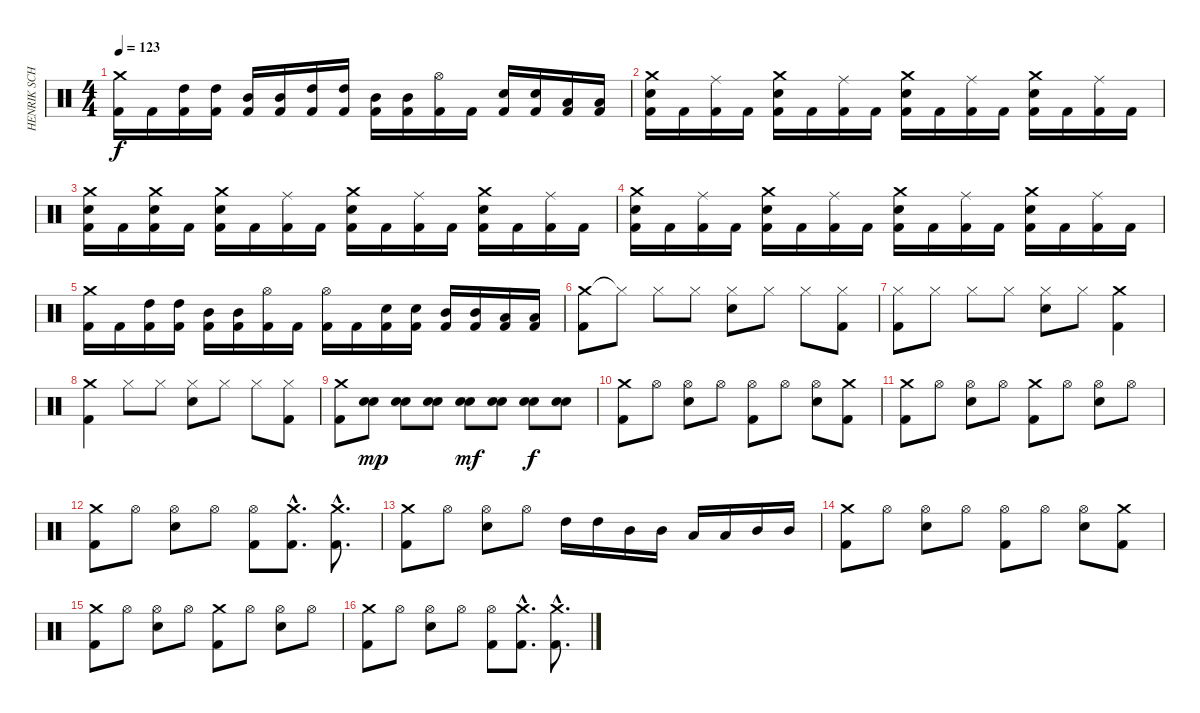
\track ("HENRIK SCHÖNSTÖM " "HENRIK SCH") {instrument percussion}
\staff {score}
\articulation defaults
\ts (4 4)
\tempo 123
\clef neutral
\ks c
("Crash medium (hit)" "Kick (hit) 2").16{dy f} "Kick (hit) 2".16 ("High Tom (hit)" "Kick (hit) 2").16 ("High Tom (hit)" "Kick (hit) 2").16 ("Mid Tom (hit)" "Kick (hit) 2").16 ("Mid Tom (hit)" "Kick (hit) 2").16 ("High Tom (hit)" "Kick (hit) 2").16 ("High Tom (hit)" "Kick (hit) 2").16 ("Mid Tom (hit)" "Kick (hit) 2").16 ("Mid Tom (hit)" "Kick (hit) 2").16 ("Hi-Hat (open)" "Kick (hit) 2").16 "Kick (hit) 2".16 ("Snare (hit) 2" "Kick (hit) 2").16 ("Snare (hit) 2" "Kick (hit) 2").16 ("Low Tom (hit)" "Kick (hit) 2").16 ("Low Tom (hit)" "Kick (hit) 2").16 |
("Crash medium (hit)" "Snare (hit) 2" "Kick (hit) 2").16 "Kick (hit) 2".16 ("Ride (middle)" "Kick (hit) 2").16 "Kick (hit) 2".16 ("Crash medium (hit)" "Snare (hit) 2" "Kick (hit) 2").16 "Kick (hit) 2".16 ("Ride (middle)" "Kick (hit) 2").16 "Kick (hit) 2".16 ("Crash medium (hit)" "Snare (hit) 2" "Kick (hit) 2").16 "Kick (hit) 2".16 ("Ride (middle)" "Kick (hit) 2").16 "Kick (hit) 2".16 ("Crash medium (hit)" "Snare (hit) 2" "Kick (hit) 2").16 "Kick (hit) 2".16 ("Ride (middle)" "Kick (hit) 2").16 "Kick (hit) 2".16 |
("Crash medium (hit)" "Snare (hit) 2" "Kick (hit) 2").16 "Kick (hit) 2".16 ("Crash medium (hit)" "Snare (hit) 2" "Kick (hit) 2").16 "Kick (hit) 2".16 ("Crash medium (hit)" "Snare (hit) 2" "Kick (hit) 2").16 "Kick (hit) 2".16 ("Ride (middle)" "Kick (hit) 2").16 "Kick (hit) 2".16 ("Crash medium (hit)" "Snare (hit) 2" "Kick (hit) 2").16 "Kick (hit) 2".16 ("Ride (middle)" "Kick (hit) 2").16 "Kick (hit) 2".16 ("Crash medium (hit)" "Snare (hit) 2" "Kick (hit) 2").16 "Kick (hit) 2".16 ("Ride (middle)" "Kick (hit) 2").16 "Kick (hit) 2".16 |
("Crash medium (hit)" "Snare (hit) 2" "Kick (hit) 2").16 "Kick (hit) 2".16 ("Ride (middle)" "Kick (hit) 2").16 "Kick (hit) 2".16 ("Crash medium (hit)" "Snare (hit) 2" "Kick (hit) 2").16 "Kick (hit) 2".16 ("Ride (middle)" "Kick (hit) 2").16 "Kick (hit) 2".16 ("Crash medium (hit)" "Snare (hit) 2" "Kick (hit) 2").16 "Kick (hit) 2".16 ("Ride (middle)" "Kick (hit) 2").16 "Kick (hit) 2".16 ("Crash medium (hit)" "Snare (hit) 2" "Kick (hit) 2").16 "Kick (hit) 2".16 ("Ride (middle)" "Kick (hit) 2").16 "Kick (hit) 2".16 |
("Crash medium (hit)" "Kick (hit) 2").16 "Kick (hit) 2".16 ("High Tom (hit)" "Kick (hit) 2").16 ("High Tom (hit)" "Kick (hit) 2").16 ("Mid Tom (hit)" "Kick (hit) 2").16 ("Mid Tom (hit)" "Kick (hit) 2").16 ("Hi-Hat (open)" "Kick (hit) 2").16 "Kick (hit) 2".16 ("Hi-Hat (open)" "Kick (hit) 2").16 "Kick (hit) 2".16 ("Snare (hit) 2" "Kick (hit) 2").16 ("Snare (hit) 2" "Kick (hit) 2").16 ("Mid Tom (hit)" "Kick (hit) 2").16 ("Mid Tom (hit)" "Kick (hit) 2").16 ("Low Tom (hit)" "Kick (hit) 2").16 ("Low Tom (hit)" "Kick (hit) 2").16 |
("Crash medium (hit)" "Kick (hit) 2").8 "Hi-Hat (closed)"{t}.8 "Hi-Hat (closed)".8 "Hi-Hat (closed)".8 ("Hi-Hat (closed)" "Snare (hit) 2").8 "Hi-Hat (closed)".8 "Hi-Hat (closed)".8 ("Hi-Hat (closed)" "Kick (hit) 2").8 |
("Hi-Hat (closed)" "Kick (hit) 2").8 "Hi-Hat (closed)".8 "Hi-Hat (closed)".8 "Hi-Hat (closed)".8 ("Hi-Hat (closed)" "Snare (hit) 2").8 "Hi-Hat (closed)".8 ("Crash medium (hit)" "Kick (hit) 2").4 |
("Crash medium (hit)" "Kick (hit) 2").4 "Hi-Hat (closed)".8 "Hi-Hat (closed)".8 ("Hi-Hat (closed)" "Snare (hit) 2").8 "Hi-Hat (closed)".8 "Hi-Hat (closed)".8 ("Hi-Hat (closed)" "Kick (hit) 2").8 |
("Crash medium (hit)" "Kick (hit) 2").8 ("Snare (hit) 2" "Snare (hit) 2").8{dy mp} ("Snare (hit) 2" "Snare (hit) 2").8 ("Snare (hit) 2" "Snare (hit) 2").8 ("Snare (hit) 2" "Snare (hit) 2").8{dy mf} ("Snare (hit) 2" "Snare (hit) 2").8 ("Snare (hit) 2" "Snare (hit) 2").8{dy f} ("Snare (hit) 2" "Snare (hit) 2").8 |
("Crash medium (hit)" "Kick (hit) 2").8 "Hi-Hat (open)".8 ("Hi-Hat (open)" "Snare (hit) 2").8 "Hi-Hat (open)".8 ("Hi-Hat (open)" "Kick (hit) 2").8 "Hi-Hat (open)".8 ("Hi-Hat (open)" "Snare (hit) 2").8 ("Crash medium (hit)" "Kick (hit) 2").8 |
("Crash medium (hit)" "Kick (hit) 2").8 "Hi-Hat (open)".8 ("Hi-Hat (open)" "Snare (hit) 2").8 "Hi-Hat (open)".8 ("Crash medium (hit)" "Kick (hit) 2").8 "Hi-Hat (open)".8 ("Hi-Hat (open)" "Snare (hit) 2").8 "Hi-Hat (open)".8 |
("Crash medium (hit)" "Kick (hit) 2").8 "Hi-Hat (open)".8 ("Hi-Hat (open)" "Snare (hit) 2").8 "Hi-Hat (open)".8 ("Hi-Hat (open)" "Kick (hit) 2").8 ("Crash medium (hit)"{hac} "Kick (hit) 2"{hac}).8{d} ("Crash medium (hit)"{hac} "Kick (hit) 2"{hac}).8{d} |
("Crash medium (hit)" "Kick (hit) 2").8 "Hi-Hat (open)".8 ("Hi-Hat (open)" "Snare (hit) 2").8 "Hi-Hat (open)".8 "High Tom (hit)".16 "High Tom (hit)".16 "Mid Tom (hit)".16 "Mid Tom (hit)".16 "Low Tom (hit)".16 "Low Tom (hit)".16 "Mid Tom (hit)".16 "Mid Tom (hit)".16 |
("Crash medium (hit)" "Kick (hit) 2").8 "Hi-Hat (open)".8 ("Hi-Hat (open)" "Snare (hit) 2").8 "Hi-Hat (open)".8 ("Hi-Hat (open)" "Kick (hit) 2").8 "Hi-Hat (open)".8 ("Hi-Hat (open)" "Snare (hit) 2").8 ("Crash medium (hit)" "Kick (hit) 2").8 |
("Crash medium (hit)" "Kick (hit) 2").8 "Hi-Hat (open)".8 ("Hi-Hat (open)" "Snare (hit) 2").8 "Hi-Hat (open)".8 ("Crash medium (hit)" "Kick (hit) 2").8 "Hi-Hat (open)".8 ("Hi-Hat (open)" "Snare (hit) 2").8 "Hi-Hat (open)".8 |
("Crash medium (hit)" "Kick (hit) 2").8 "Hi-Hat (open)".8 ("Hi-Hat (open)" "Snare (hit) 2").8 "Hi-Hat (open)".8 ("Hi-Hat (open)" "Kick (hit) 2").8 ("Crash medium (hit)"{hac} "Kick (hit) 2"{hac}).8{d} ("Crash medium (hit)"{hac} "Kick (hit) 2"{hac}).8{d}
